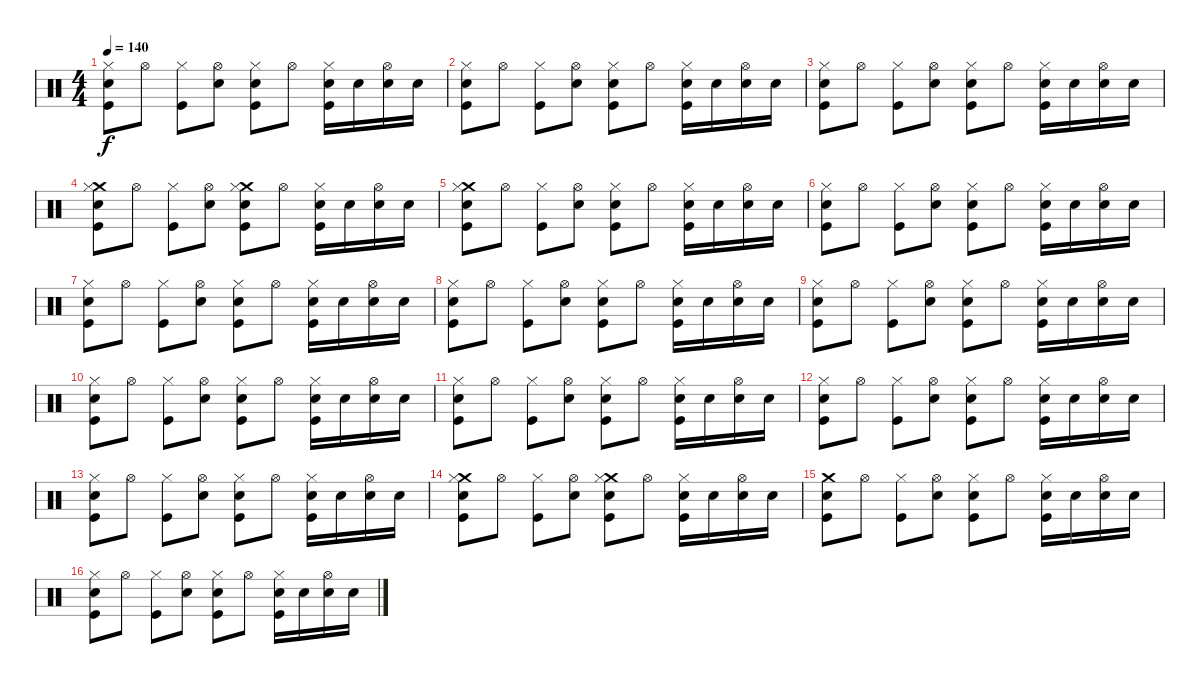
\track "" {instrument percussion}
\staff {score}
\articulation defaults
\ts (4 4)
\tempo 140
\clef neutral
\ks c
("Snare (hit) 2" "Hi-Hat (closed)" "Kick (hit)").8{dy f} "Hi-Hat (open)".8 ("Hi-Hat (closed)" "Kick (hit)").8 ("Snare (hit) 2" "Hi-Hat (open)").8 ("Snare (hit) 2" "Hi-Hat (closed)" "Kick (hit)").8 "Hi-Hat (open)".8 ("Snare (hit) 2" "Hi-Hat (closed)" "Kick (hit)").16 "Snare (hit) 2".16 ("Snare (hit) 2" "Hi-Hat (open)").16 "Snare (hit) 2".16 |
("Snare (hit) 2" "Hi-Hat (closed)" "Kick (hit)").8 "Hi-Hat (open)".8 ("Hi-Hat (closed)" "Kick (hit)").8 ("Snare (hit) 2" "Hi-Hat (open)").8 ("Snare (hit) 2" "Hi-Hat (closed)" "Kick (hit)").8 "Hi-Hat (open)".8 ("Snare (hit) 2" "Hi-Hat (closed)" "Kick (hit)").16 "Snare (hit) 2".16 ("Snare (hit) 2" "Hi-Hat (open)").16 "Snare (hit) 2".16 |
("Snare (hit) 2" "Hi-Hat (closed)" "Kick (hit)").8 "Hi-Hat (open)".8 ("Hi-Hat (closed)" "Kick (hit)").8 ("Snare (hit) 2" "Hi-Hat (open)").8 ("Snare (hit) 2" "Hi-Hat (closed)" "Kick (hit)").8 "Hi-Hat (open)".8 ("Snare (hit) 2" "Hi-Hat (closed)" "Kick (hit)").16 "Snare (hit) 2".16 ("Snare (hit) 2" "Hi-Hat (open)").16 "Snare (hit) 2".16 |
("Crash medium (hit)" "Snare (hit) 2" "Hi-Hat (closed)" "Kick (hit)").8 "Hi-Hat (open)".8 ("Hi-Hat (closed)" "Kick (hit)").8 ("Snare (hit) 2" "Hi-Hat (open)").8 ("Crash medium (hit)" "Snare (hit) 2" "Hi-Hat (closed)" "Kick (hit)").8 "Hi-Hat (open)".8 ("Snare (hit) 2" "Hi-Hat (closed)" "Kick (hit)").16 "Snare (hit) 2".16 ("Snare (hit) 2" "Hi-Hat (open)").16 "Snare (hit) 2".16 |
("Crash medium (hit)" "Snare (hit) 2" "Hi-Hat (closed)" "Kick (hit)").8 "Hi-Hat (open)".8 ("Hi-Hat (closed)" "Kick (hit)").8 ("Snare (hit) 2" "Hi-Hat (open)").8 ("Snare (hit) 2" "Hi-Hat (closed)" "Kick (hit)").8 "Hi-Hat (open)".8 ("Snare (hit) 2" "Hi-Hat (closed)" "Kick (hit)").16 "Snare (hit) 2".16 ("Snare (hit) 2" "Hi-Hat (open)").16 "Snare (hit) 2".16 |
("Snare (hit) 2" "Hi-Hat (closed)" "Kick (hit)").8 "Hi-Hat (open)".8 ("Hi-Hat (closed)" "Kick (hit)").8 ("Snare (hit) 2" "Hi-Hat (open)").8 ("Snare (hit) 2" "Hi-Hat (closed)" "Kick (hit)").8 "Hi-Hat (open)".8 ("Snare (hit) 2" "Hi-Hat (closed)" "Kick (hit)").16 "Snare (hit) 2".16 ("Snare (hit) 2" "Hi-Hat (open)").16 "Snare (hit) 2".16 |
("Snare (hit) 2" "Hi-Hat (closed)" "Kick (hit)").8 "Hi-Hat (open)".8 ("Hi-Hat (closed)" "Kick (hit)").8 ("Snare (hit) 2" "Hi-Hat (open)").8 ("Snare (hit) 2" "Hi-Hat (closed)" "Kick (hit)").8 "Hi-Hat (open)".8 ("Snare (hit) 2" "Hi-Hat (closed)" "Kick (hit)").16 "Snare (hit) 2".16 ("Snare (hit) 2" "Hi-Hat (open)").16 "Snare (hit) 2".16 |
("Snare (hit) 2" "Hi-Hat (closed)" "Kick (hit)").8 "Hi-Hat (open)".8 ("Hi-Hat (closed)" "Kick (hit)").8 ("Snare (hit) 2" "Hi-Hat (open)").8 ("Snare (hit) 2" "Hi-Hat (closed)" "Kick (hit)").8 "Hi-Hat (open)".8 ("Snare (hit) 2" "Hi-Hat (closed)" "Kick (hit)").16 "Snare (hit) 2".16 ("Snare (hit) 2" "Hi-Hat (open)").16 "Snare (hit) 2".16 |
("Snare (hit) 2" "Hi-Hat (closed)" "Kick (hit)").8 "Hi-Hat (open)".8 ("Hi-Hat (closed)" "Kick (hit)").8 ("Snare (hit) 2" "Hi-Hat (open)").8 ("Snare (hit) 2" "Hi-Hat (closed)" "Kick (hit)").8 "Hi-Hat (open)".8 ("Snare (hit) 2" "Hi-Hat (closed)" "Kick (hit)").16 "Snare (hit) 2".16 ("Snare (hit) 2" "Hi-Hat (open)").16 "Snare (hit) 2".16 |
("Snare (hit) 2" "Hi-Hat (closed)" "Kick (hit)").8 "Hi-Hat (open)".8 ("Hi-Hat (closed)" "Kick (hit)").8 ("Snare (hit) 2" "Hi-Hat (open)").8 ("Snare (hit) 2" "Hi-Hat (closed)" "Kick (hit)").8 "Hi-Hat (open)".8 ("Snare (hit) 2" "Hi-Hat (closed)" "Kick (hit)").16 "Snare (hit) 2".16 ("Snare (hit) 2" "Hi-Hat (open)").16 "Snare (hit) 2".16 |
("Snare (hit) 2" "Hi-Hat (closed)" "Kick (hit)").8 "Hi-Hat (open)".8 ("Hi-Hat (closed)" "Kick (hit)").8 ("Snare (hit) 2" "Hi-Hat (open)").8 ("Snare (hit) 2" "Hi-Hat (closed)" "Kick (hit)").8 "Hi-Hat (open)".8 ("Snare (hit) 2" "Hi-Hat (closed)" "Kick (hit)").16 "Snare (hit) 2".16 ("Snare (hit) 2" "Hi-Hat (open)").16 "Snare (hit) 2".16 |
("Snare (hit) 2" "Hi-Hat (closed)" "Kick (hit)").8 "Hi-Hat (open)".8 ("Hi-Hat (closed)" "Kick (hit)").8 ("Snare (hit) 2" "Hi-Hat (open)").8 ("Snare (hit) 2" "Hi-Hat (closed)" "Kick (hit)").8 "Hi-Hat (open)".8 ("Snare (hit) 2" "Hi-Hat (closed)" "Kick (hit)").16 "Snare (hit) 2".16 ("Snare (hit) 2" "Hi-Hat (open)").16 "Snare (hit) 2".16 |
("Snare (hit) 2" "Hi-Hat (closed)" "Kick (hit)").8 "Hi-Hat (open)".8 ("Hi-Hat (closed)" "Kick (hit)").8 ("Snare (hit) 2" "Hi-Hat (open)").8 ("Snare (hit) 2" "Hi-Hat (closed)" "Kick (hit)").8 "Hi-Hat (open)".8 ("Snare (hit) 2" "Hi-Hat (closed)" "Kick (hit)").16 "Snare (hit) 2".16 ("Snare (hit) 2" "Hi-Hat (open)").16 "Snare (hit) 2".16 |
("Crash medium (hit)" "Snare (hit) 2" "Hi-Hat (closed)" "Kick (hit)").8 "Hi-Hat (open)".8 ("Hi-Hat (closed)" "Kick (hit)").8 ("Snare (hit) 2" "Hi-Hat (open)").8 ("Crash medium (hit)" "Snare (hit) 2" "Hi-Hat (closed)" "Kick (hit)").8 "Hi-Hat (open)".8 ("Snare (hit) 2" "Hi-Hat (closed)" "Kick (hit)").16 "Snare (hit) 2".16 ("Snare (hit) 2" "Hi-Hat (open)").16 "Snare (hit) 2".16 |
("Snare (hit) 2" "Crash medium (hit)" "Kick (hit)").8 "Hi-Hat (open)".8 ("Hi-Hat (closed)" "Kick (hit)").8 ("Snare (hit) 2" "Hi-Hat (open)").8 ("Snare (hit) 2" "Hi-Hat (closed)" "Kick (hit)").8 "Hi-Hat (open)".8 ("Snare (hit) 2" "Hi-Hat (closed)" "Kick (hit)").16 "Snare (hit) 2".16 ("Snare (hit) 2" "Hi-Hat (open)").16 "Snare (hit) 2".16 |
("Snare (hit) 2" "Hi-Hat (closed)" "Kick (hit)").8 "Hi-Hat (open)".8 ("Hi-Hat (closed)" "Kick (hit)").8 ("Snare (hit) 2" "Hi-Hat (open)").8 ("Snare (hit) 2" "Hi-Hat (closed)" "Kick (hit)").8 "Hi-Hat (open)".8 ("Snare (hit) 2" "Hi-Hat (closed)" "Kick (hit)").16 "Snare (hit) 2".16 ("Snare (hit) 2" "Hi-Hat (open)").16 "Snare (hit) 2".16
